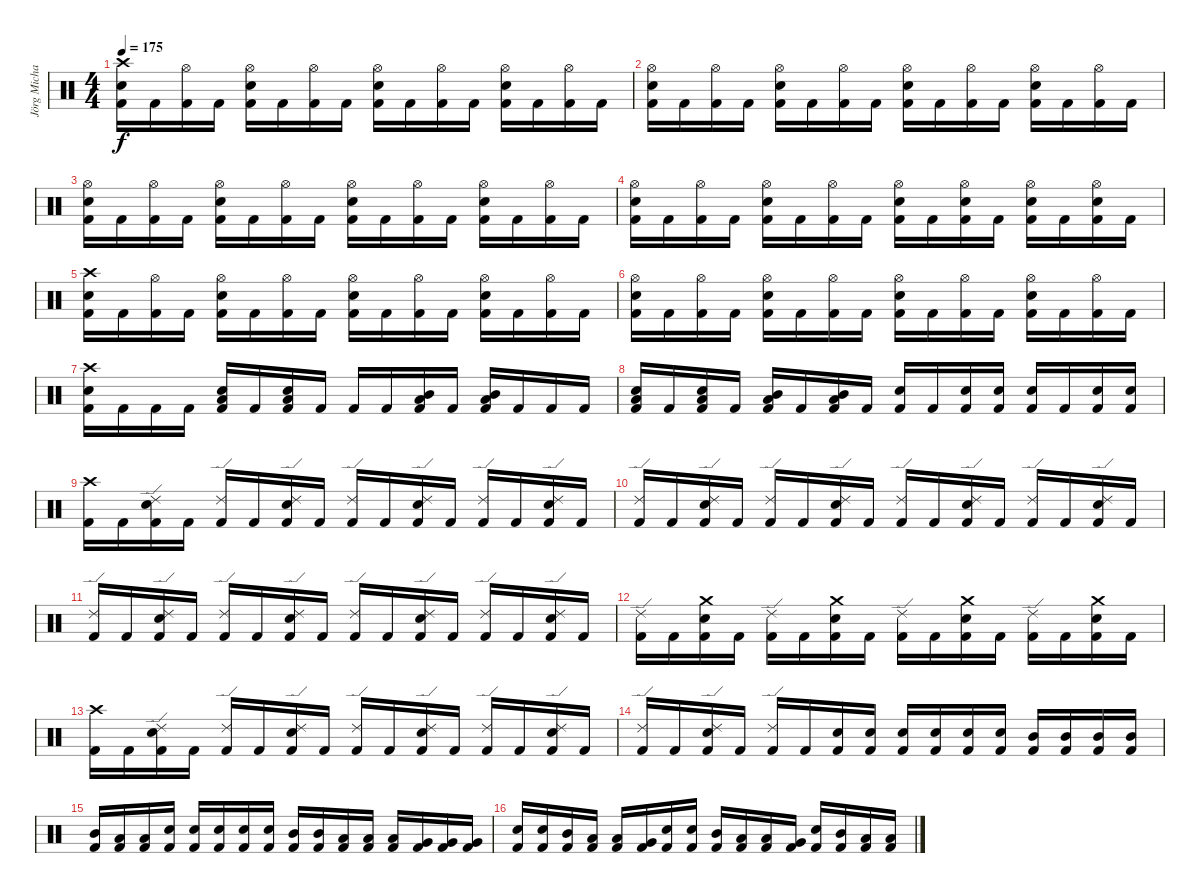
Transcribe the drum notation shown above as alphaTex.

\track ("Jörg Michael" "Jörg Micha") {instrument percussion}
\staff {score}
\articulation defaults
\ts (4 4)
\tempo 175
\clef neutral
\ks c
("Kick (hit) 2" "Electric Snare (hit)" "Crash high (hit)").16{dy f} "Kick (hit) 2".16 ("Kick (hit) 2" "Hi-Hat (open)").16 "Kick (hit) 2".16 ("Kick (hit) 2" "Electric Snare (hit)" "Hi-Hat (open)").16 "Kick (hit) 2".16 ("Kick (hit) 2" "Hi-Hat (open)").16 "Kick (hit) 2".16 ("Kick (hit) 2" "Electric Snare (hit)" "Hi-Hat (open)").16 "Kick (hit) 2".16 ("Kick (hit) 2" "Hi-Hat (open)").16 "Kick (hit) 2".16 ("Kick (hit) 2" "Electric Snare (hit)" "Hi-Hat (open)").16 "Kick (hit) 2".16 ("Kick (hit) 2" "Hi-Hat (open)").16 "Kick (hit) 2".16 |
("Kick (hit) 2" "Electric Snare (hit)" "Hi-Hat (open)").16 "Kick (hit) 2".16 ("Kick (hit) 2" "Hi-Hat (open)").16 "Kick (hit) 2".16 ("Kick (hit) 2" "Electric Snare (hit)" "Hi-Hat (open)").16 "Kick (hit) 2".16 ("Kick (hit) 2" "Hi-Hat (open)").16 "Kick (hit) 2".16 ("Kick (hit) 2" "Electric Snare (hit)" "Hi-Hat (open)").16 "Kick (hit) 2".16 ("Kick (hit) 2" "Hi-Hat (open)").16 "Kick (hit) 2".16 ("Kick (hit) 2" "Electric Snare (hit)" "Hi-Hat (open)").16 "Kick (hit) 2".16 ("Kick (hit) 2" "Hi-Hat (open)").16 "Kick (hit) 2".16 |
("Kick (hit) 2" "Electric Snare (hit)" "Hi-Hat (open)").16 "Kick (hit) 2".16 ("Kick (hit) 2" "Hi-Hat (open)").16 "Kick (hit) 2".16 ("Kick (hit) 2" "Electric Snare (hit)" "Hi-Hat (open)").16 "Kick (hit) 2".16 ("Kick (hit) 2" "Hi-Hat (open)").16 "Kick (hit) 2".16 ("Kick (hit) 2" "Electric Snare (hit)" "Hi-Hat (open)").16 "Kick (hit) 2".16 ("Kick (hit) 2" "Hi-Hat (open)").16 "Kick (hit) 2".16 ("Kick (hit) 2" "Electric Snare (hit)" "Hi-Hat (open)").16 "Kick (hit) 2".16 ("Kick (hit) 2" "Hi-Hat (open)").16 "Kick (hit) 2".16 |
("Kick (hit) 2" "Electric Snare (hit)" "Hi-Hat (open)").16 "Kick (hit) 2".16 ("Kick (hit) 2" "Hi-Hat (open)").16 "Kick (hit) 2".16 ("Kick (hit) 2" "Electric Snare (hit)" "Hi-Hat (open)").16 "Kick (hit) 2".16 ("Kick (hit) 2" "Hi-Hat (open)").16 "Kick (hit) 2".16 ("Kick (hit) 2" "Electric Snare (hit)" "Hi-Hat (open)").16 "Kick (hit) 2".16 ("Kick (hit) 2" "Electric Snare (hit)" "Hi-Hat (open)").16 "Kick (hit) 2".16 ("Kick (hit) 2" "Electric Snare (hit)" "Hi-Hat (open)").16 "Kick (hit) 2".16 ("Kick (hit) 2" "Electric Snare (hit)" "Hi-Hat (open)").16 "Kick (hit) 2".16 |
("Kick (hit) 2" "Electric Snare (hit)" "Crash high (hit)").16 "Kick (hit) 2".16 ("Kick (hit) 2" "Hi-Hat (open)").16 "Kick (hit) 2".16 ("Kick (hit) 2" "Electric Snare (hit)" "Hi-Hat (open)").16 "Kick (hit) 2".16 ("Kick (hit) 2" "Hi-Hat (open)").16 "Kick (hit) 2".16 ("Kick (hit) 2" "Electric Snare (hit)" "Hi-Hat (open)").16 "Kick (hit) 2".16 ("Kick (hit) 2" "Hi-Hat (open)").16 "Kick (hit) 2".16 ("Kick (hit) 2" "Electric Snare (hit)" "Hi-Hat (open)").16 "Kick (hit) 2".16 ("Kick (hit) 2" "Hi-Hat (open)").16 "Kick (hit) 2".16 |
("Kick (hit) 2" "Electric Snare (hit)" "Hi-Hat (open)").16 "Kick (hit) 2".16 ("Kick (hit) 2" "Hi-Hat (open)").16 "Kick (hit) 2".16 ("Kick (hit) 2" "Electric Snare (hit)" "Hi-Hat (open)").16 "Kick (hit) 2".16 ("Kick (hit) 2" "Hi-Hat (open)").16 "Kick (hit) 2".16 ("Kick (hit) 2" "Electric Snare (hit)" "Hi-Hat (open)").16 "Kick (hit) 2".16 ("Kick (hit) 2" "Hi-Hat (open)").16 "Kick (hit) 2".16 ("Kick (hit) 2" "Electric Snare (hit)" "Hi-Hat (open)").16 "Kick (hit) 2".16 ("Kick (hit) 2" "Hi-Hat (open)").16 "Kick (hit) 2".16 |
("Kick (hit) 2" "Electric Snare (hit)" "Crash high (hit)").16 "Kick (hit) 2".16 "Kick (hit) 2".16 "Kick (hit) 2".16 ("Kick (hit) 2" "Low Tom (hit)" "Electric Snare (hit)").16 "Kick (hit) 2".16 ("Kick (hit) 2" "Low Tom (hit)" "Electric Snare (hit)").16 "Kick (hit) 2".16 "Kick (hit) 2".16 "Kick (hit) 2".16 ("Kick (hit) 2" "Mid Tom (hit)" "Low Tom (hit)").16 "Kick (hit) 2".16 ("Kick (hit) 2" "Mid Tom (hit)" "Low Tom (hit)").16 "Kick (hit) 2".16 "Kick (hit) 2".16 "Kick (hit) 2".16 |
("Kick (hit) 2" "Low Tom (hit)" "Electric Snare (hit)").16 "Kick (hit) 2".16 ("Kick (hit) 2" "Low Tom (hit)" "Electric Snare (hit)").16 "Kick (hit) 2".16 ("Kick (hit) 2" "Mid Tom (hit)" "Low Tom (hit)").16 "Kick (hit) 2".16 ("Kick (hit) 2" "Mid Tom (hit)" "Low Tom (hit)").16 "Kick (hit) 2".16 ("Kick (hit) 2" "Electric Snare (hit)").16 "Kick (hit) 2".16 ("Kick (hit) 2" "Electric Snare (hit)").16 ("Kick (hit) 2" "Electric Snare (hit)").16 ("Kick (hit) 2" "Electric Snare (hit)").16 "Kick (hit) 2".16 ("Kick (hit) 2" "Electric Snare (hit)").16 ("Kick (hit) 2" "Electric Snare (hit)").16 |
("Kick (hit) 2" "Crash high (hit)").16 "Kick (hit) 2".16 ("Kick (hit) 2" "Electric Snare (hit)" "Ride (edge) 2").16 "Kick (hit) 2".16 ("Kick (hit) 2" "Ride (edge) 2").16 "Kick (hit) 2".16 ("Kick (hit) 2" "Electric Snare (hit)" "Ride (edge) 2").16 "Kick (hit) 2".16 ("Kick (hit) 2" "Ride (edge) 2").16 "Kick (hit) 2".16 ("Kick (hit) 2" "Electric Snare (hit)" "Ride (edge) 2").16 "Kick (hit) 2".16 ("Kick (hit) 2" "Ride (edge) 2").16 "Kick (hit) 2".16 ("Kick (hit) 2" "Electric Snare (hit)" "Ride (edge) 2").16 "Kick (hit) 2".16 |
("Kick (hit) 2" "Ride (edge) 2").16 "Kick (hit) 2".16 ("Kick (hit) 2" "Electric Snare (hit)" "Ride (edge) 2").16 "Kick (hit) 2".16 ("Kick (hit) 2" "Ride (edge) 2").16 "Kick (hit) 2".16 ("Kick (hit) 2" "Electric Snare (hit)" "Ride (edge) 2").16 "Kick (hit) 2".16 ("Kick (hit) 2" "Ride (edge) 2").16 "Kick (hit) 2".16 ("Kick (hit) 2" "Electric Snare (hit)" "Ride (edge) 2").16 "Kick (hit) 2".16 ("Kick (hit) 2" "Ride (edge) 2").16 "Kick (hit) 2".16 ("Kick (hit) 2" "Electric Snare (hit)" "Ride (edge) 2").16 "Kick (hit) 2".16 |
("Kick (hit) 2" "Ride (edge) 2").16 "Kick (hit) 2".16 ("Kick (hit) 2" "Electric Snare (hit)" "Ride (edge) 2").16 "Kick (hit) 2".16 ("Kick (hit) 2" "Ride (edge) 2").16 "Kick (hit) 2".16 ("Kick (hit) 2" "Electric Snare (hit)" "Ride (edge) 2").16 "Kick (hit) 2".16 ("Kick (hit) 2" "Ride (edge) 2").16 "Kick (hit) 2".16 ("Kick (hit) 2" "Electric Snare (hit)" "Ride (edge) 2").16 "Kick (hit) 2".16 ("Kick (hit) 2" "Ride (edge) 2").16 "Kick (hit) 2".16 ("Kick (hit) 2" "Electric Snare (hit)" "Ride (edge) 2").16 "Kick (hit) 2".16 |
("Kick (hit) 2" "Ride (edge) 2").16 "Kick (hit) 2".16 ("Kick (hit) 2" "Electric Snare (hit)" "Crash medium (hit)").16 "Kick (hit) 2".16 ("Kick (hit) 2" "Ride (edge) 2").16 "Kick (hit) 2".16 ("Kick (hit) 2" "Electric Snare (hit)" "Crash medium (hit)").16 "Kick (hit) 2".16 ("Kick (hit) 2" "Ride (edge) 2").16 "Kick (hit) 2".16 ("Kick (hit) 2" "Electric Snare (hit)" "Crash medium (hit)").16 "Kick (hit) 2".16 ("Kick (hit) 2" "Ride (edge) 2").16 "Kick (hit) 2".16 ("Kick (hit) 2" "Electric Snare (hit)" "Crash medium (hit)").16 "Kick (hit) 2".16 |
("Kick (hit) 2" "Crash high (hit)").16 "Kick (hit) 2".16 ("Kick (hit) 2" "Electric Snare (hit)" "Ride (edge) 2").16 "Kick (hit) 2".16 ("Kick (hit) 2" "Ride (edge) 2").16 "Kick (hit) 2".16 ("Kick (hit) 2" "Electric Snare (hit)" "Ride (edge) 2").16 "Kick (hit) 2".16 ("Kick (hit) 2" "Ride (edge) 2").16 "Kick (hit) 2".16 ("Kick (hit) 2" "Electric Snare (hit)" "Ride (edge) 2").16 "Kick (hit) 2".16 ("Kick (hit) 2" "Ride (edge) 2").16 "Kick (hit) 2".16 ("Kick (hit) 2" "Electric Snare (hit)" "Ride (edge) 2").16 "Kick (hit) 2".16 |
("Kick (hit) 2" "Ride (edge) 2").16 "Kick (hit) 2".16 ("Kick (hit) 2" "Electric Snare (hit)" "Ride (edge) 2").16 "Kick (hit) 2".16 ("Kick (hit) 2" "Ride (edge) 2").16 "Kick (hit) 2".16 ("Kick (hit) 2" "Electric Snare (hit)").16 ("Kick (hit) 2" "Electric Snare (hit)").16 ("Kick (hit) 2" "Electric Snare (hit)").16 ("Kick (hit) 2" "Electric Snare (hit)").16 ("Kick (hit) 2" "Electric Snare (hit)").16 ("Kick (hit) 2" "Electric Snare (hit)").16 ("Kick (hit) 2" "Mid Tom (hit)").16 ("Kick (hit) 2" "Mid Tom (hit)").16 ("Kick (hit) 2" "Mid Tom (hit)").16 ("Kick (hit) 2" "Mid Tom (hit)").16 |
("Kick (hit) 2" "Mid Tom (hit)").16 ("Kick (hit) 2" "Low Tom (hit)").16 ("Kick (hit) 2" "Low Tom (hit)").16 ("Kick (hit) 2" "Electric Snare (hit)").16 ("Kick (hit) 2" "Electric Snare (hit)").16 ("Kick (hit) 2" "Electric Snare (hit)").16 ("Kick (hit) 2" "Electric Snare (hit)").16 ("Kick (hit) 2" "Electric Snare (hit)").16 ("Kick (hit) 2" "Mid Tom (hit)").16 ("Kick (hit) 2" "Mid Tom (hit)").16 ("Kick (hit) 2" "Low Tom (hit)").16 ("Kick (hit) 2" "Low Tom (hit)").16 ("Kick (hit) 2" "Low Tom (hit)").16 ("Kick (hit) 2" "Very Low Tom (hit)").16 ("Kick (hit) 2" "Very Low Tom (hit)").16 ("Kick (hit) 2" "Very Low Tom (hit)").16 |
("Kick (hit) 2" "Electric Snare (hit)").16 ("Kick (hit) 2" "Electric Snare (hit)").16 ("Kick (hit) 2" "Mid Tom (hit)").16 ("Kick (hit) 2" "Low Tom (hit)").16 ("Kick (hit) 2" "Low Tom (hit)").16 ("Kick (hit) 2" "Very Low Tom (hit)").16 ("Kick (hit) 2" "Electric Snare (hit)").16 ("Kick (hit) 2" "Electric Snare (hit)").16 ("Kick (hit) 2" "Mid Tom (hit)").16 ("Kick (hit) 2" "Low Tom (hit)").16 ("Kick (hit) 2" "Low Tom (hit)").16 ("Kick (hit) 2" "Very Low Tom (hit)").16 ("Kick (hit) 2" "Electric Snare (hit)").16 ("Kick (hit) 2" "Mid Tom (hit)").16 ("Kick (hit) 2" "Low Tom (hit)").16 ("Kick (hit) 2" "Low Tom (hit)").16
